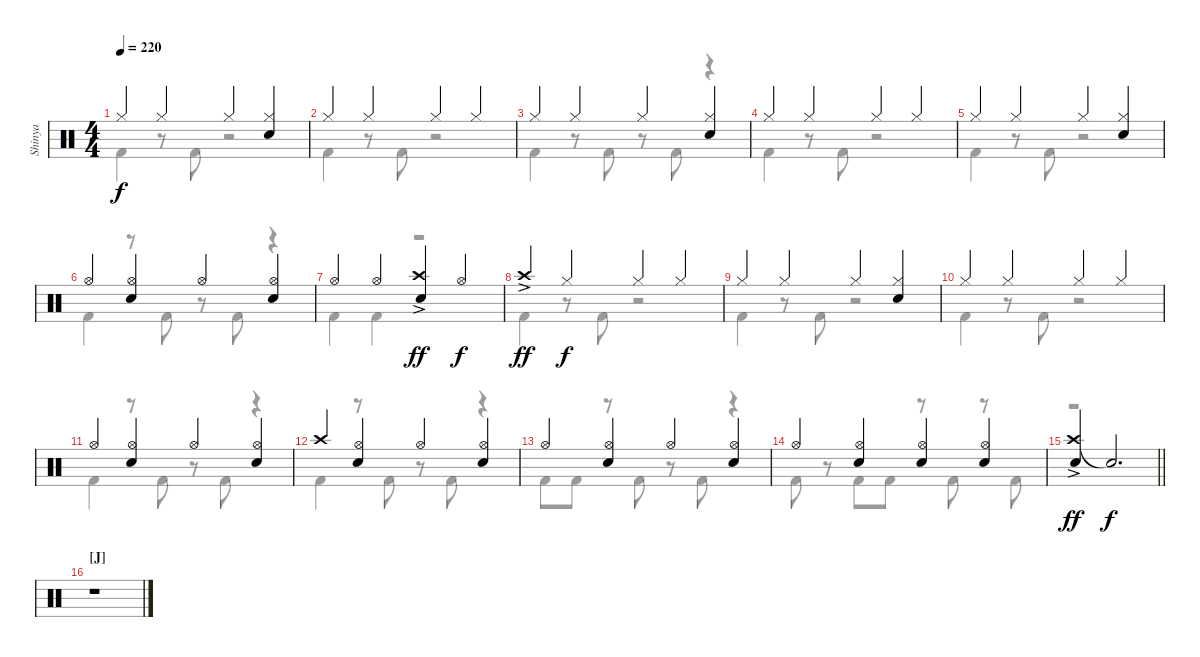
\track ("Shinya" "Shinya") {instrument percussion}
\staff {score}
\articulation defaults
\voice
\ts (4 4)
\tempo 220
\clef neutral
\ks c "Hi-Hat (closed)".4{dy f} "Hi-Hat (closed)".4 "Hi-Hat (closed)".4
("Hi-Hat (closed)" "Snare (hit) 2").4 |
"Hi-Hat (closed)".4 "Hi-Hat (closed)".4 "Hi-Hat (closed)".4 "Hi-Hat (closed)".4 |
"Hi-Hat (closed)".4 "Hi-Hat (closed)".4 "Hi-Hat (closed)".4 ("Hi-Hat (closed)" "Snare (hit) 2").4 |
"Hi-Hat (closed)".4 "Hi-Hat (closed)".4 "Hi-Hat (closed)".4 "Hi-Hat (closed)".4 |
"Hi-Hat (closed)".4 "Hi-Hat (closed)".4 "Hi-Hat (closed)".4 ("Hi-Hat (closed)" "Snare (hit) 2").4 |
"Hi-Hat (open)".4 ("Hi-Hat (open)" "Snare (hit) 2").4 "Hi-Hat (open)".4 ("Hi-Hat (open)" "Snare (hit) 2").4 |
"Hi-Hat (open)".4 "Hi-Hat (open)".4 ("Crash high (hit)"{ac} "Snare (hit) 2").4{dy ff} "Hi-Hat (open)".4{dy f} |
"Crash high (hit)"{ac}.4{dy ff} "Hi-Hat (closed)".4{dy f} "Hi-Hat (closed)".4 "Hi-Hat (closed)".4 |
"Hi-Hat (closed)".4 "Hi-Hat (closed)".4 "Hi-Hat (closed)".4 ("Hi-Hat (closed)" "Snare (hit) 2").4 |
"Hi-Hat (closed)".4 "Hi-Hat (closed)".4 "Hi-Hat (closed)".4 "Hi-Hat (closed)".4 |
"Hi-Hat (open)".4 ("Hi-Hat (open)" "Snare (hit) 2").4 "Hi-Hat (open)".4 ("Hi-Hat (open)" "Snare (hit) 2").4 |
"Crash high (hit)".4 ("Hi-Hat (open)" "Snare (hit) 2").4 "Hi-Hat (open)".4 ("Hi-Hat (open)" "Snare (hit) 2").4 |
"Hi-Hat (open)".4 ("Hi-Hat (open)" "Snare (hit) 2").4 "Hi-Hat (open)".4 ("Hi-Hat (open)" "Snare (hit) 2").4 |
"Hi-Hat (open)".4 ("Hi-Hat (open)" "Snare (hit) 2").4 ("Hi-Hat (open)" "Snare (hit) 2").4 ("Hi-Hat (open)" "Snare (hit) 2").4 |
\barLineRight lightlight
("Crash high (hit)"{ac} "Snare (hit) 2").4{dy ff} "Snare (hit)"{t}.2{d dy f} |
\section ("" "[J]")
r.1
\voice
\clef neutral
\ottava regular
\simile none
\ks c "Kick (hit) 2".4{dy f}
r.8 "Kick (hit) 2".8 r.2 |
"Kick (hit) 2".4 r.8 "Kick (hit) 2".8 r.2 |
"Kick (hit) 2".4 r.8 "Kick (hit) 2".8 r.8 "Kick (hit) 2".8 r.4 |
"Kick (hit) 2".4 r.8 "Kick (hit) 2".8 r.2 |
"Kick (hit) 2".4 r.8 "Kick (hit) 2".8 r.2 |
"Kick (hit) 2".4 r.8 "Kick (hit) 2".8 r.8 "Kick (hit) 2".8 r.4 |
"Kick (hit) 2".4 "Kick (hit) 2".4 r.2 |
"Kick (hit) 2".4 r.8 "Kick (hit) 2".8 r.2 |
"Kick (hit) 2".4 r.8 "Kick (hit) 2".8 r.2 |
"Kick (hit) 2".4 r.8 "Kick (hit) 2".8 r.2 |
"Kick (hit) 2".4 r.8 "Kick (hit) 2".8 r.8 "Kick (hit) 2".8 r.4 |
"Kick (hit) 2".4 r.8 "Kick (hit) 2".8 r.8 "Kick (hit) 2".8 r.4 |
"Kick (hit) 2".8 "Kick (hit) 2".8 r.8 "Kick (hit) 2".8 r.8 "Kick (hit) 2".8 r.4 |
"Kick (hit) 2".8 r.8 "Kick (hit) 2".8 "Kick (hit) 2".8 r.8 "Kick (hit) 2".8 r.8 "Kick (hit) 2".8 |
\barLineRight lightlight
r.1 |
